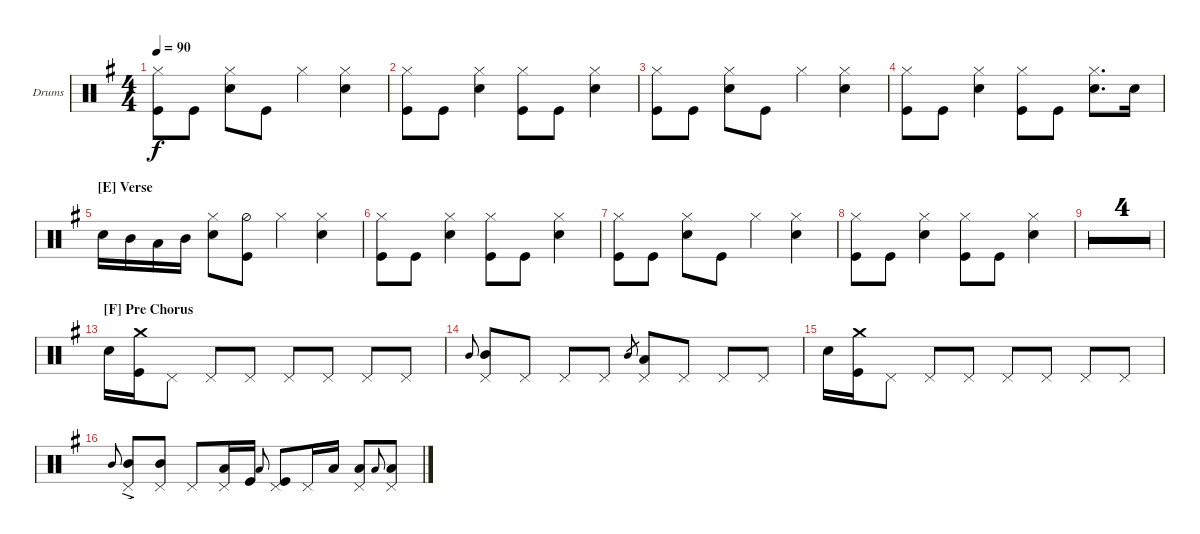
\defaultSystemsLayout 4
\bracketExtendMode groupsimilarinstruments
\firstSystemTrackNameOrientation horizontal
\otherSystemsTrackNameOrientation horizontal
\track ("Matt Helders" "Drums") {multiBarRest instrument percussion}
\staff {score}
\articulation defaults
\ts (4 4)
\tempo 90
\clef neutral
\ks g
("Kick (hit)" "Hi-Hat (closed)").8{dy f} "Kick (hit)".8 ("Snare (hit) 2" "Hi-Hat (closed)").8 "Kick (hit)".8 "Hi-Hat (closed)".4 ("Snare (hit) 2" "Hi-Hat (closed)").4 |
("Kick (hit)" "Hi-Hat (closed)").8 "Kick (hit)".8 ("Snare (hit) 2" "Hi-Hat (closed)").4 ("Kick (hit)" "Hi-Hat (closed)").8 "Kick (hit)".8 ("Snare (hit) 2" "Hi-Hat (closed)").4 |
("Kick (hit)" "Hi-Hat (closed)").8 "Kick (hit)".8 ("Snare (hit) 2" "Hi-Hat (closed)").8 "Kick (hit)".8 "Hi-Hat (closed)".4 ("Snare (hit) 2" "Hi-Hat (closed)").4 |
("Kick (hit)" "Hi-Hat (closed)").8 "Kick (hit)".8 ("Snare (hit) 2" "Hi-Hat (closed)").4 ("Kick (hit)" "Hi-Hat (closed)").8 "Kick (hit)".8 ("Snare (hit) 2" "Hi-Hat (closed)").8{d} "Snare (hit) 2".16 |
\section ("E" "Verse")
"Snare (hit) 2".16 "Mid Tom (hit)".16 "Low Tom (hit)".16 "Mid Tom (hit)".16 ("Snare (hit) 2" "Hi-Hat (closed)").8 ("Kick (hit)" "Hi-Hat (half)").8 "Hi-Hat (closed)".4 ("Snare (hit) 2" "Hi-Hat (closed)").4 |
("Kick (hit)" "Hi-Hat (closed)").8 "Kick (hit)".8 ("Snare (hit) 2" "Hi-Hat (closed)").4 ("Kick (hit)" "Hi-Hat (closed)").8 "Kick (hit)".8 ("Snare (hit) 2" "Hi-Hat (closed)").4 |
("Kick (hit)" "Hi-Hat (closed)").8 "Kick (hit)".8 ("Snare (hit) 2" "Hi-Hat (closed)").8 "Kick (hit)".8 "Hi-Hat (closed)".4 ("Snare (hit) 2" "Hi-Hat (closed)").4 |
("Kick (hit)" "Hi-Hat (closed)").8 "Kick (hit)".8 ("Snare (hit) 2" "Hi-Hat (closed)").4 ("Kick (hit)" "Hi-Hat (closed)").8 "Kick (hit)".8 ("Snare (hit) 2" "Hi-Hat (closed)").4 |
\simile firstofdouble
|
\simile secondofdouble
|
\simile firstofdouble
|
\simile secondofdouble
|
\section ("F" "Pre Chorus")
\simile none "Snare (hit) 2".16
("Kick (hit)" "Crash medium (hit)").16 "Pedal Hi-Hat (hit)".8 "Pedal Hi-Hat (hit)".8 "Pedal Hi-Hat (hit)".8 "Pedal Hi-Hat (hit)".8 "Pedal Hi-Hat (hit)".8 "Pedal Hi-Hat (hit)".8 "Pedal Hi-Hat (hit)".8 |
"Mid Tom (hit)".8{gr onbeat} ("Mid Tom (hit)" "Pedal Hi-Hat (hit)").8 "Pedal Hi-Hat (hit)".8 "Pedal Hi-Hat (hit)".8 "Pedal Hi-Hat (hit)".8 "Mid Tom (hit)".8{gr} ("Low Tom (hit)" "Pedal Hi-Hat (hit)").8 "Pedal Hi-Hat (hit)".8 "Pedal Hi-Hat (hit)".8 "Pedal Hi-Hat (hit)".8 |
"Snare (hit) 2".16 ("Kick (hit)" "Crash medium (hit)").16 "Pedal Hi-Hat (hit)".8 "Pedal Hi-Hat (hit)".8 "Pedal Hi-Hat (hit)".8 "Pedal Hi-Hat (hit)".8 "Pedal Hi-Hat (hit)".8 "Pedal Hi-Hat (hit)".8 "Pedal Hi-Hat (hit)".8 |
"Mid Tom (hit)".8{gr onbeat} ("Mid Tom (hit)"{ac} "Pedal Hi-Hat (hit)").8 ("Pedal Hi-Hat (hit)" "Mid Tom (hit)").8 "Pedal Hi-Hat (hit)".8 ("Pedal Hi-Hat (hit)" "Low Tom (hit)").16 "Kick (hit)".16 "Low Tom (hit)".8{gr onbeat} ("Pedal Hi-Hat (hit)" "Kick (hit)").8 "Pedal Hi-Hat (hit)".16 "Low Tom (hit)".16 ("Low Tom (hit)" "Pedal Hi-Hat (hit)").8 "Low Tom (hit)".8{gr onbeat} ("Low Tom (hit)" "Pedal Hi-Hat (hit)").8
